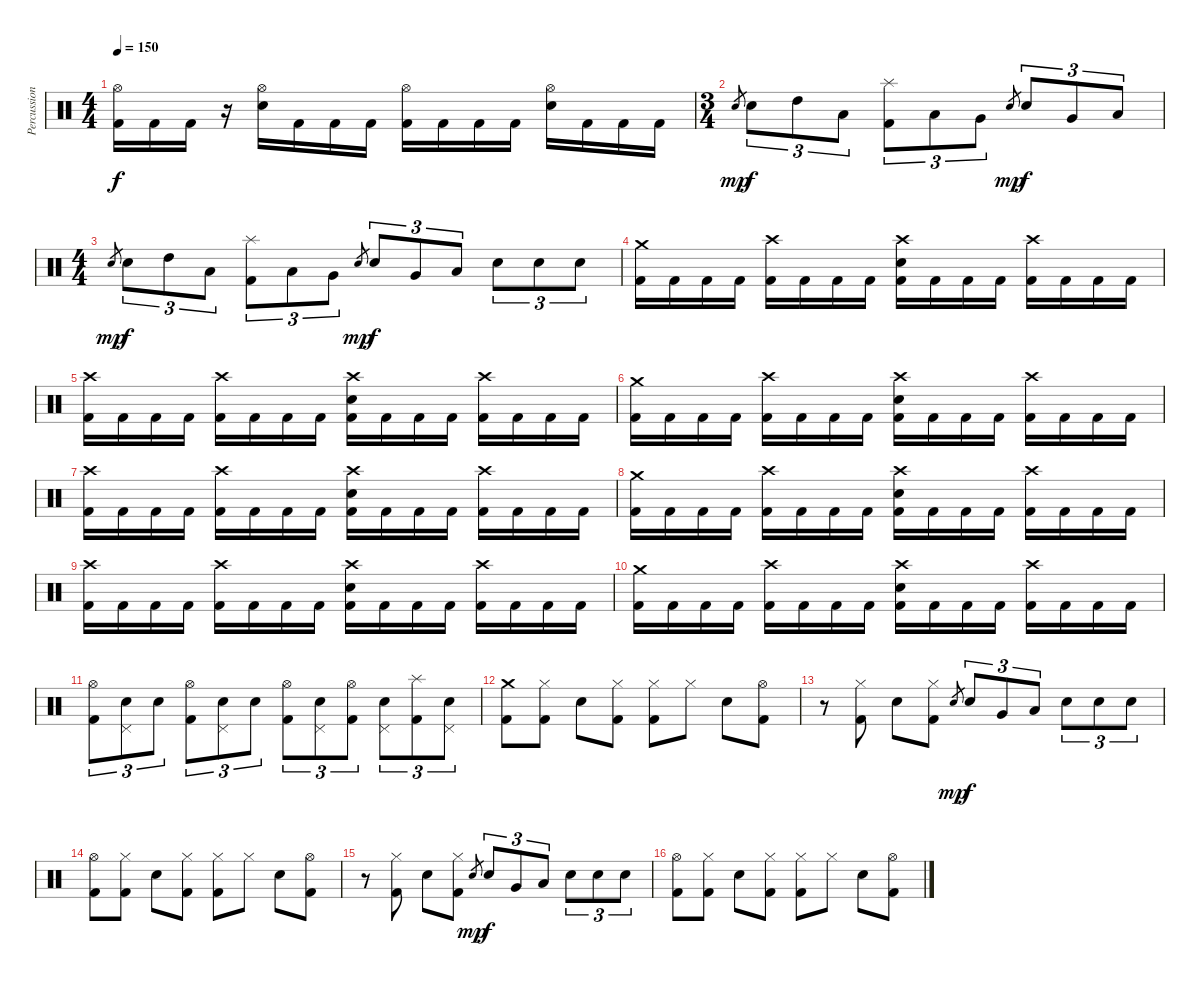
\track ("Percussions" "Percussion") {instrument percussion}
\staff {score}
\articulation defaults
\ts (4 4)
\tempo 150
\clef neutral
\ks c
("Hi-Hat (open)" "Kick (hit) 2").16{dy f} "Kick (hit) 2".16 "Kick (hit) 2".16 r.16 ("Hi-Hat (open)" "Snare (hit) 2").16 "Kick (hit) 2".16 "Kick (hit) 2".16 "Kick (hit) 2".16 ("Hi-Hat (open)" "Kick (hit) 2").16 "Kick (hit) 2".16 "Kick (hit) 2".16 "Kick (hit) 2".16 ("Hi-Hat (open)" "Snare (hit) 2").16 "Kick (hit) 2".16 "Kick (hit) 2".16 "Kick (hit) 2".16 |
\ts (3 4)
"Snare (hit) 2".8{gr dy mp} "Snare (hit) 2".8{tu (3 2) dy f} "High Tom (hit)".8{tu (3 2)} "Low Tom (hit)".8{tu (3 2)} ("Splash (hit)" "Kick (hit) 2").8{tu (3 2)} "Low Tom (hit)".8{tu (3 2)} "Very Low Tom (hit)".8{tu (3 2)} "Snare (hit) 2".8{gr dy mp} "Snare (hit) 2".8{tu (3 2) dy f} "Very Low Tom (hit)".8{tu (3 2)} "Low Floor Tom (hit)".8{tu (3 2)} |
\ts (4 4)
"Snare (hit) 2".8{gr dy mp} "Snare (hit) 2".8{tu (3 2) dy f} "High Tom (hit)".8{tu (3 2)} "Low Tom (hit)".8{tu (3 2)} ("Splash (hit)" "Kick (hit) 2").8{tu (3 2)} "Low Tom (hit)".8{tu (3 2)} "Very Low Tom (hit)".8{tu (3 2)} "Snare (hit) 2".8{gr dy mp} "Snare (hit) 2".8{tu (3 2) dy f} "Very Low Tom (hit)".8{tu (3 2)} "Low Floor Tom (hit)".8{tu (3 2)} "Snare (hit) 2".8{tu (3 2)} "Snare (hit) 2".8{tu (3 2)} "Snare (hit) 2".8{tu (3 2)} |
("Crash medium (hit)" "Kick (hit) 2").16 "Kick (hit) 2".16 "Kick (hit) 2".16 "Kick (hit) 2".16 ("Crash high (hit)" "Kick (hit) 2").16 "Kick (hit) 2".16 "Kick (hit) 2".16 "Kick (hit) 2".16 ("Crash high (hit)" "Snare (hit) 2" "Kick (hit) 2").16 "Kick (hit) 2".16 "Kick (hit) 2".16 "Kick (hit) 2".16 ("Crash high (hit)" "Kick (hit) 2").16 "Kick (hit) 2".16 "Kick (hit) 2".16 "Kick (hit) 2".16 |
("Crash high (hit)" "Kick (hit) 2").16 "Kick (hit) 2".16 "Kick (hit) 2".16 "Kick (hit) 2".16 ("Crash high (hit)" "Kick (hit) 2").16 "Kick (hit) 2".16 "Kick (hit) 2".16 "Kick (hit) 2".16 ("Crash high (hit)" "Snare (hit) 2" "Kick (hit) 2").16 "Kick (hit) 2".16 "Kick (hit) 2".16 "Kick (hit) 2".16 ("Crash high (hit)" "Kick (hit) 2").16 "Kick (hit) 2".16 "Kick (hit) 2".16 "Kick (hit) 2".16 |
("Crash medium (hit)" "Kick (hit) 2").16 "Kick (hit) 2".16 "Kick (hit) 2".16 "Kick (hit) 2".16 ("Crash high (hit)" "Kick (hit) 2").16 "Kick (hit) 2".16 "Kick (hit) 2".16 "Kick (hit) 2".16 ("Crash high (hit)" "Snare (hit) 2" "Kick (hit) 2").16 "Kick (hit) 2".16 "Kick (hit) 2".16 "Kick (hit) 2".16 ("Crash high (hit)" "Kick (hit) 2").16 "Kick (hit) 2".16 "Kick (hit) 2".16 "Kick (hit) 2".16 |
("Crash high (hit)" "Kick (hit) 2").16 "Kick (hit) 2".16 "Kick (hit) 2".16 "Kick (hit) 2".16 ("Crash high (hit)" "Kick (hit) 2").16 "Kick (hit) 2".16 "Kick (hit) 2".16 "Kick (hit) 2".16 ("Crash high (hit)" "Snare (hit) 2" "Kick (hit) 2").16 "Kick (hit) 2".16 "Kick (hit) 2".16 "Kick (hit) 2".16 ("Crash high (hit)" "Kick (hit) 2").16 "Kick (hit) 2".16 "Kick (hit) 2".16 "Kick (hit) 2".16 |
("Crash medium (hit)" "Kick (hit) 2").16 "Kick (hit) 2".16 "Kick (hit) 2".16 "Kick (hit) 2".16 ("Crash high (hit)" "Kick (hit) 2").16 "Kick (hit) 2".16 "Kick (hit) 2".16 "Kick (hit) 2".16 ("Crash high (hit)" "Snare (hit) 2" "Kick (hit) 2").16 "Kick (hit) 2".16 "Kick (hit) 2".16 "Kick (hit) 2".16 ("Crash high (hit)" "Kick (hit) 2").16 "Kick (hit) 2".16 "Kick (hit) 2".16 "Kick (hit) 2".16 |
("Crash high (hit)" "Kick (hit) 2").16 "Kick (hit) 2".16 "Kick (hit) 2".16 "Kick (hit) 2".16 ("Crash high (hit)" "Kick (hit) 2").16 "Kick (hit) 2".16 "Kick (hit) 2".16 "Kick (hit) 2".16 ("Crash high (hit)" "Snare (hit) 2" "Kick (hit) 2").16 "Kick (hit) 2".16 "Kick (hit) 2".16 "Kick (hit) 2".16 ("Crash high (hit)" "Kick (hit) 2").16 "Kick (hit) 2".16 "Kick (hit) 2".16 "Kick (hit) 2".16 |
("Crash medium (hit)" "Kick (hit) 2").16 "Kick (hit) 2".16 "Kick (hit) 2".16 "Kick (hit) 2".16 ("Crash high (hit)" "Kick (hit) 2").16 "Kick (hit) 2".16 "Kick (hit) 2".16 "Kick (hit) 2".16 ("Crash high (hit)" "Snare (hit) 2" "Kick (hit) 2").16 "Kick (hit) 2".16 "Kick (hit) 2".16 "Kick (hit) 2".16 ("Crash high (hit)" "Kick (hit) 2").16 "Kick (hit) 2".16 "Kick (hit) 2".16 "Kick (hit) 2".16 |
("Hi-Hat (open)" "Kick (hit) 2").8{tu (3 2)} ("Snare (hit) 2" "Pedal Hi-Hat (hit)").8{tu (3 2)} "Snare (hit) 2".8{tu (3 2)} ("Hi-Hat (open)" "Kick (hit) 2").8{tu (3 2)} ("Snare (hit) 2" "Pedal Hi-Hat (hit)").8{tu (3 2)} "Snare (hit) 2".8{tu (3 2)} ("Hi-Hat (open)" "Kick (hit) 2").8{tu (3 2)} ("Snare (hit) 2" "Pedal Hi-Hat (hit)").8{tu (3 2)} ("Hi-Hat (open)" "Kick (hit) 2").8{tu (3 2)} ("Snare (hit) 2" "Pedal Hi-Hat (hit)").8{tu (3 2)} ("Splash (hit)" "Kick (hit) 2").8{tu (3 2)} ("Snare (hit) 2" "Pedal Hi-Hat (hit)").8{tu (3 2)} |
("Crash medium (hit)" "Kick (hit) 2").8 ("Hi-Hat (closed)" "Kick (hit) 2").8 "Snare (hit) 2".8 ("Hi-Hat (closed)" "Kick (hit) 2").8 ("Hi-Hat (closed)" "Kick (hit) 2").8 "Hi-Hat (closed)".8 "Snare (hit) 2".8 ("Hi-Hat (open)" "Kick (hit) 2").8 |
r.8 ("Hi-Hat (closed)" "Kick (hit) 2").8 "Snare (hit) 2".8 ("Hi-Hat (closed)" "Kick (hit) 2").8 "Snare (hit) 2".8{gr dy mp} "Snare (hit) 2".8{tu (3 2) dy f} "Very Low Tom (hit)".8{tu (3 2)} "Low Floor Tom (hit)".8{tu (3 2)} "Snare (hit) 2".8{tu (3 2)} "Snare (hit) 2".8{tu (3 2)} "Snare (hit) 2".8{tu (3 2)} |
("Hi-Hat (open)" "Kick (hit) 2").8 ("Hi-Hat (closed)" "Kick (hit) 2").8 "Snare (hit) 2".8 ("Hi-Hat (closed)" "Kick (hit) 2").8 ("Hi-Hat (closed)" "Kick (hit) 2").8 "Hi-Hat (closed)".8 "Snare (hit) 2".8 ("Hi-Hat (open)" "Kick (hit) 2").8 |
r.8 ("Hi-Hat (closed)" "Kick (hit) 2").8 "Snare (hit) 2".8 ("Hi-Hat (closed)" "Kick (hit) 2").8 "Snare (hit) 2".8{gr dy mp} "Snare (hit) 2".8{tu (3 2) dy f} "Very Low Tom (hit)".8{tu (3 2)} "Low Floor Tom (hit)".8{tu (3 2)} "Snare (hit) 2".8{tu (3 2)} "Snare (hit) 2".8{tu (3 2)} "Snare (hit) 2".8{tu (3 2)} |
("Hi-Hat (open)" "Kick (hit) 2").8 ("Hi-Hat (closed)" "Kick (hit) 2").8 "Snare (hit) 2".8 ("Hi-Hat (closed)" "Kick (hit) 2").8 ("Hi-Hat (closed)" "Kick (hit) 2").8 "Hi-Hat (closed)".8 "Snare (hit) 2".8 ("Hi-Hat (open)" "Kick (hit) 2").8
